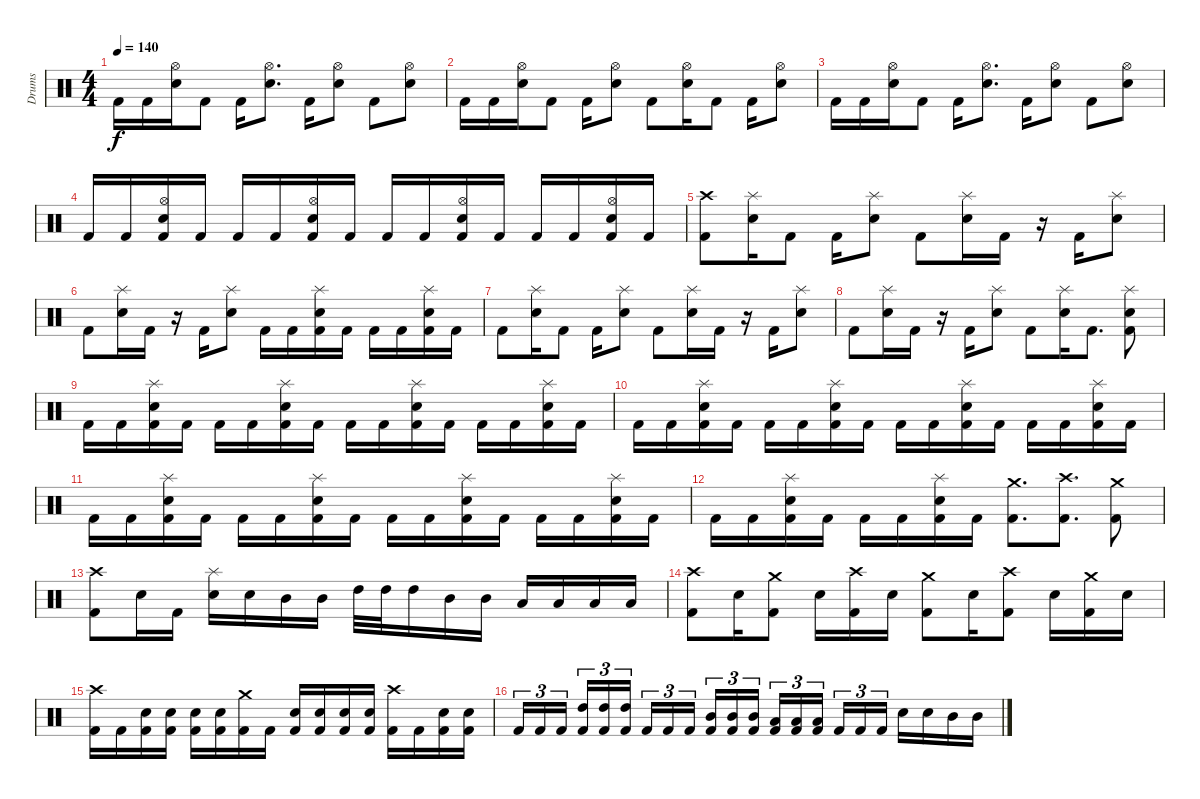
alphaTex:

\track ("Drums" "Drums") {instrument percussion}
\staff {score}
\articulation defaults
\ts (4 4)
\tempo 140
\clef neutral
\ks c "Kick (hit) 2".16{dy f} "Kick (hit) 2".16
("Hi-Hat (open)" "Snare (hit) 2").16 "Kick (hit) 2".8 "Kick (hit) 2".16 ("Hi-Hat (open)" "Snare (hit) 2").8{d} "Kick (hit) 2".16 ("Hi-Hat (open)" "Snare (hit) 2").8 "Kick (hit) 2".8 ("Hi-Hat (open)" "Snare (hit) 2").8 |
"Kick (hit) 2".16 "Kick (hit) 2".16 ("Hi-Hat (open)" "Snare (hit) 2").16 "Kick (hit) 2".8 "Kick (hit) 2".16 ("Hi-Hat (open)" "Snare (hit) 2").8 "Kick (hit) 2".8 ("Hi-Hat (open)" "Snare (hit) 2").16 "Kick (hit) 2".8 "Kick (hit) 2".16 ("Hi-Hat (open)" "Snare (hit) 2").8 |
"Kick (hit) 2".16 "Kick (hit) 2".16 ("Hi-Hat (open)" "Snare (hit) 2").16 "Kick (hit) 2".8 "Kick (hit) 2".16 ("Hi-Hat (open)" "Snare (hit) 2").8{d} "Kick (hit) 2".16 ("Hi-Hat (open)" "Snare (hit) 2").8 "Kick (hit) 2".8 ("Hi-Hat (open)" "Snare (hit) 2").8 |
"Kick (hit) 2".16 "Kick (hit) 2".16 ("Hi-Hat (open)" "Snare (hit) 2" "Kick (hit) 2").16 "Kick (hit) 2".16 "Kick (hit) 2".16 "Kick (hit) 2".16 ("Hi-Hat (open)" "Snare (hit) 2" "Kick (hit) 2").16 "Kick (hit) 2".16 "Kick (hit) 2".16 "Kick (hit) 2".16 ("Hi-Hat (open)" "Snare (hit) 2" "Kick (hit) 2").16 "Kick (hit) 2".16 "Kick (hit) 2".16 "Kick (hit) 2".16 ("Hi-Hat (open)" "Snare (hit) 2" "Kick (hit) 2").16 "Kick (hit) 2".16 |
("Crash high (hit)" "Kick (hit) 2").8 ("Splash (hit)" "Snare (hit) 2").16 "Kick (hit) 2".8 "Kick (hit) 2".16 ("Splash (hit)" "Snare (hit) 2").8 "Kick (hit) 2".8 ("Splash (hit)" "Snare (hit) 2").16 "Kick (hit) 2".16 r.16 "Kick (hit) 2".16 ("Splash (hit)" "Snare (hit) 2").8 |
"Kick (hit) 2".8 ("Splash (hit)" "Snare (hit) 2").16 "Kick (hit) 2".16 r.16 "Kick (hit) 2".16 ("Splash (hit)" "Snare (hit) 2").8 "Kick (hit) 2".16 "Kick (hit) 2".16 ("Splash (hit)" "Snare (hit) 2" "Kick (hit) 2").16 "Kick (hit) 2".16 "Kick (hit) 2".16 "Kick (hit) 2".16 ("Splash (hit)" "Snare (hit) 2" "Kick (hit) 2").16 "Kick (hit) 2".16 |
"Kick (hit) 2".8 ("Splash (hit)" "Snare (hit) 2").16 "Kick (hit) 2".8 "Kick (hit) 2".16 ("Splash (hit)" "Snare (hit) 2").8 "Kick (hit) 2".8 ("Splash (hit)" "Snare (hit) 2").16 "Kick (hit) 2".16 r.16 "Kick (hit) 2".16 ("Splash (hit)" "Snare (hit) 2").8 |
"Kick (hit) 2".8 ("Splash (hit)" "Snare (hit) 2").16 "Kick (hit) 2".16 r.16 "Kick (hit) 2".16 ("Splash (hit)" "Snare (hit) 2").8 "Kick (hit) 2".8 ("Splash (hit)" "Snare (hit) 2").16 "Kick (hit) 2".8{d} ("Splash (hit)" "Snare (hit) 2" "Kick (hit) 2").8 |
"Kick (hit) 2".16 "Kick (hit) 2".16 ("Splash (hit)" "Snare (hit) 2" "Kick (hit) 2").16 "Kick (hit) 2".16 "Kick (hit) 2".16 "Kick (hit) 2".16 ("Splash (hit)" "Snare (hit) 2" "Kick (hit) 2").16 "Kick (hit) 2".16 "Kick (hit) 2".16 "Kick (hit) 2".16 ("Splash (hit)" "Snare (hit) 2" "Kick (hit) 2").16 "Kick (hit) 2".16 "Kick (hit) 2".16 "Kick (hit) 2".16 ("Splash (hit)" "Snare (hit) 2" "Kick (hit) 2").16 "Kick (hit) 2".16 |
"Kick (hit) 2".16 "Kick (hit) 2".16 ("Splash (hit)" "Snare (hit) 2" "Kick (hit) 2").16 "Kick (hit) 2".16 "Kick (hit) 2".16 "Kick (hit) 2".16 ("Splash (hit)" "Snare (hit) 2" "Kick (hit) 2").16 "Kick (hit) 2".16 "Kick (hit) 2".16 "Kick (hit) 2".16 ("Splash (hit)" "Snare (hit) 2" "Kick (hit) 2").16 "Kick (hit) 2".16 "Kick (hit) 2".16 "Kick (hit) 2".16 ("Splash (hit)" "Snare (hit) 2" "Kick (hit) 2").16 "Kick (hit) 2".16 |
"Kick (hit) 2".16 "Kick (hit) 2".16 ("Splash (hit)" "Snare (hit) 2" "Kick (hit) 2").16 "Kick (hit) 2".16 "Kick (hit) 2".16 "Kick (hit) 2".16 ("Splash (hit)" "Snare (hit) 2" "Kick (hit) 2").16 "Kick (hit) 2".16 "Kick (hit) 2".16 "Kick (hit) 2".16 ("Splash (hit)" "Snare (hit) 2" "Kick (hit) 2").16 "Kick (hit) 2".16 "Kick (hit) 2".16 "Kick (hit) 2".16 ("Splash (hit)" "Snare (hit) 2" "Kick (hit) 2").16 "Kick (hit) 2".16 |
"Kick (hit) 2".16 "Kick (hit) 2".16 ("Splash (hit)" "Snare (hit) 2" "Kick (hit) 2").16 "Kick (hit) 2".16 "Kick (hit) 2".16 "Kick (hit) 2".16 ("Splash (hit)" "Snare (hit) 2" "Kick (hit) 2").16 "Kick (hit) 2".16 ("Crash medium (hit)" "Kick (hit) 2").8{d} ("Crash high (hit)" "Kick (hit) 2").8{d} ("Crash medium (hit)" "Kick (hit) 2").8 |
("Crash high (hit)" "Kick (hit) 2").8 "Snare (hit) 2".16 "Kick (hit) 2".16 ("Splash (hit)" "Snare (hit) 2").16 "Snare (hit) 2".16 "Mid Tom (hit)".16 "Mid Tom (hit)".16 "High Tom (hit)".32 "High Tom (hit)".32 "High Tom (hit)".16 "Mid Tom (hit)".16 "Mid Tom (hit)".16 "Low Tom (hit)".16 "Low Tom (hit)".16 "Low Tom (hit)".16 "Low Tom (hit)".16 |
("Crash high (hit)" "Kick (hit) 2").8 "Snare (hit) 2".16 ("Crash medium (hit)" "Kick (hit) 2").8 "Snare (hit) 2".16 ("Crash high (hit)" "Kick (hit) 2").16 "Snare (hit) 2".16 ("Crash medium (hit)" "Kick (hit) 2").8 "Snare (hit) 2".16 ("Crash high (hit)" "Kick (hit) 2").8 "Snare (hit) 2".16 ("Crash medium (hit)" "Kick (hit) 2").16 "Snare (hit) 2".16 |
("Crash high (hit)" "Kick (hit) 2").16 "Kick (hit) 2".16 ("Snare (hit) 2" "Kick (hit) 2").16 ("Snare (hit) 2" "Kick (hit) 2").16 ("Snare (hit) 2" "Kick (hit) 2").16 ("Snare (hit) 2" "Kick (hit) 2").16 ("Crash medium (hit)" "Kick (hit) 2").16 "Kick (hit) 2".16 ("Snare (hit) 2" "Kick (hit) 2").16 ("Snare (hit) 2" "Kick (hit) 2").16 ("Snare (hit) 2" "Kick (hit) 2").16 ("Snare (hit) 2" "Kick (hit) 2").16 ("Crash high (hit)" "Kick (hit) 2").16 "Kick (hit) 2".16 ("Snare (hit) 2" "Kick (hit) 2").16 ("Snare (hit) 2" "Kick (hit) 2").16 |
"Kick (hit) 2".16{tu (3 2)} "Kick (hit) 2".16{tu (3 2)} "Kick (hit) 2".16{tu (3 2) beam splitsecondary} ("High Tom (hit)" "Kick (hit) 2").16{tu (3 2)} ("High Tom (hit)" "Kick (hit) 2").16{tu (3 2)} ("High Tom (hit)" "Kick (hit) 2").16{tu (3 2)} "Kick (hit) 2".16{tu (3 2)} "Kick (hit) 2".16{tu (3 2)} "Kick (hit) 2".16{tu (3 2) beam splitsecondary} ("Mid Tom (hit)" "Kick (hit) 2").16{tu (3 2)} ("Mid Tom (hit)" "Kick (hit) 2").16{tu (3 2)} ("Mid Tom (hit)" "Kick (hit) 2").16{tu (3 2)} ("Low Tom (hit)" "Kick (hit) 2").16{tu (3 2)} ("Low Tom (hit)" "Kick (hit) 2").16{tu (3 2)} ("Low Tom (hit)" "Kick (hit) 2").16{tu (3 2) beam splitsecondary} "Kick (hit) 2".16{tu (3 2)} "Kick (hit) 2".16{tu (3 2)} "Kick (hit) 2".16{tu (3 2)} "Snare (hit) 2".16 "Snare (hit) 2".16 "Mid Tom (hit)".16 "Mid Tom (hit)".16
